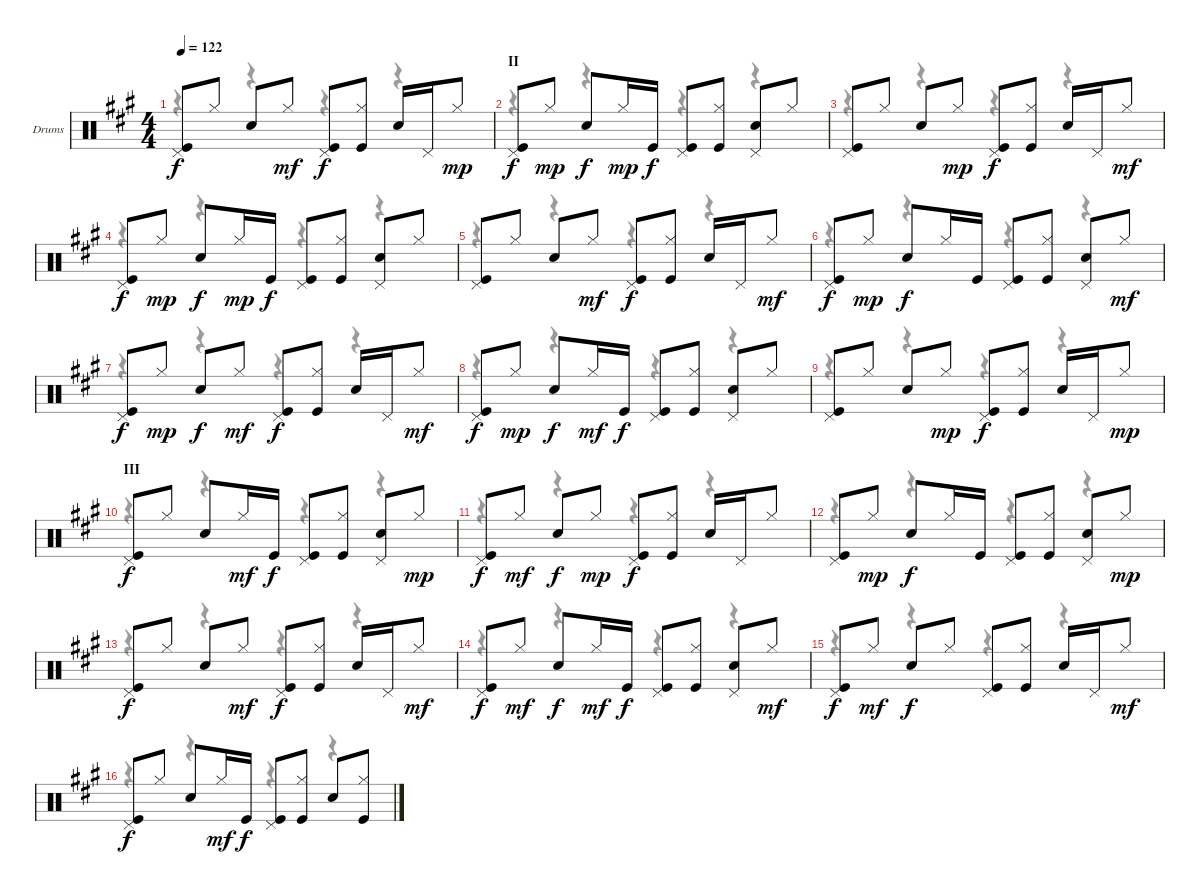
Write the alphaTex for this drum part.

\bracketExtendMode groupsimilarinstruments
\firstSystemTrackNameOrientation horizontal
\otherSystemsTrackNameOrientation horizontal
\track ("Chris Layton - Drums" "Drums") {instrument percussion}
\staff {score}
\articulation defaults
\voice
\ts (4 4)
\tempo 122
\clef neutral
\ks a
("Kick (hit)" "Pedal Hi-Hat (hit)").8{dy f} "Hi-Hat (closed)".8 "Snare (hit) 2".8 "Hi-Hat (closed)".8{dy mf} ("Kick (hit)" "Pedal Hi-Hat (hit)").8{dy f} ("Kick (hit)" "Hi-Hat (closed)").8 "Snare (hit) 2".16 "Pedal Hi-Hat (hit)".16 "Hi-Hat (closed)".8{dy mp} |
\section ("" "II")
("Kick (hit)" "Pedal Hi-Hat (hit)").8{dy f} "Hi-Hat (closed)".8{dy mp} "Snare (hit) 2".8{dy f} "Hi-Hat (closed)".16{dy mp} "Kick (hit)".16{dy f} ("Kick (hit)" "Pedal Hi-Hat (hit)").8 ("Kick (hit)" "Hi-Hat (closed)").8 ("Snare (hit) 2" "Pedal Hi-Hat (hit)").8 "Hi-Hat (closed)".8 |
("Kick (hit)" "Pedal Hi-Hat (hit)").8 "Hi-Hat (closed)".8 "Snare (hit) 2".8 "Hi-Hat (closed)".8{dy mp} ("Kick (hit)" "Pedal Hi-Hat (hit)").8{dy f} ("Kick (hit)" "Hi-Hat (closed)").8 "Snare (hit) 2".16 "Pedal Hi-Hat (hit)".16 "Hi-Hat (closed)".8{dy mf} |
("Kick (hit)" "Pedal Hi-Hat (hit)").8{dy f} "Hi-Hat (closed)".8{dy mp} "Snare (hit) 2".8{dy f} "Hi-Hat (closed)".16{dy mp} "Kick (hit)".16{dy f} ("Kick (hit)" "Pedal Hi-Hat (hit)").8 ("Kick (hit)" "Hi-Hat (closed)").8 ("Snare (hit) 2" "Pedal Hi-Hat (hit)").8 "Hi-Hat (closed)".8 |
("Kick (hit)" "Pedal Hi-Hat (hit)").8 "Hi-Hat (closed)".8 "Snare (hit) 2".8 "Hi-Hat (closed)".8{dy mf} ("Kick (hit)" "Pedal Hi-Hat (hit)").8{dy f} ("Kick (hit)" "Hi-Hat (closed)").8 "Snare (hit) 2".16 "Pedal Hi-Hat (hit)".16 "Hi-Hat (closed)".8{dy mf} |
("Kick (hit)" "Pedal Hi-Hat (hit)").8{dy f} "Hi-Hat (closed)".8{dy mp} "Snare (hit) 2".8{dy f} "Hi-Hat (closed)".16 "Kick (hit)".16 ("Kick (hit)" "Pedal Hi-Hat (hit)").8 ("Kick (hit)" "Hi-Hat (closed)").8 ("Snare (hit) 2" "Pedal Hi-Hat (hit)").8 "Hi-Hat (closed)".8{dy mf} |
("Kick (hit)" "Pedal Hi-Hat (hit)").8{dy f} "Hi-Hat (closed)".8{dy mp} "Snare (hit) 2".8{dy f} "Hi-Hat (closed)".8{dy mf} ("Kick (hit)" "Pedal Hi-Hat (hit)").8{dy f} ("Kick (hit)" "Hi-Hat (closed)").8 "Snare (hit) 2".16 "Pedal Hi-Hat (hit)".16 "Hi-Hat (closed)".8{dy mf} |
("Kick (hit)" "Pedal Hi-Hat (hit)").8{dy f} "Hi-Hat (closed)".8{dy mp} "Snare (hit) 2".8{dy f} "Hi-Hat (closed)".16{dy mf} "Kick (hit)".16{dy f} ("Kick (hit)" "Pedal Hi-Hat (hit)").8 ("Kick (hit)" "Hi-Hat (closed)").8 ("Snare (hit) 2" "Pedal Hi-Hat (hit)").8 "Hi-Hat (closed)".8 |
("Kick (hit)" "Pedal Hi-Hat (hit)").8 "Hi-Hat (closed)".8 "Snare (hit) 2".8 "Hi-Hat (closed)".8{dy mp} ("Kick (hit)" "Pedal Hi-Hat (hit)").8{dy f} ("Kick (hit)" "Hi-Hat (closed)").8 "Snare (hit) 2".16 "Pedal Hi-Hat (hit)".16 "Hi-Hat (closed)".8{dy mp} |
\section ("" "III")
("Kick (hit)" "Pedal Hi-Hat (hit)").8{dy f} "Hi-Hat (closed)".8 "Snare (hit) 2".8 "Hi-Hat (closed)".16{dy mf} "Kick (hit)".16{dy f} ("Kick (hit)" "Pedal Hi-Hat (hit)").8 ("Kick (hit)" "Hi-Hat (closed)").8 ("Snare (hit) 2" "Pedal Hi-Hat (hit)").8 "Hi-Hat (closed)".8{dy mp} |
("Kick (hit)" "Pedal Hi-Hat (hit)").8{dy f} "Hi-Hat (closed)".8{dy mf} "Snare (hit) 2".8{dy f} "Hi-Hat (closed)".8{dy mp} ("Kick (hit)" "Pedal Hi-Hat (hit)").8{dy f} ("Kick (hit)" "Hi-Hat (closed)").8 "Snare (hit) 2".16 "Pedal Hi-Hat (hit)".16 "Hi-Hat (closed)".8 |
("Kick (hit)" "Pedal Hi-Hat (hit)").8 "Hi-Hat (closed)".8{dy mp} "Snare (hit) 2".8{dy f} "Hi-Hat (closed)".16 "Kick (hit)".16 ("Kick (hit)" "Pedal Hi-Hat (hit)").8 ("Kick (hit)" "Hi-Hat (closed)").8 ("Snare (hit) 2" "Pedal Hi-Hat (hit)").8 "Hi-Hat (closed)".8{dy mp} |
("Kick (hit)" "Pedal Hi-Hat (hit)").8{dy f} "Hi-Hat (closed)".8 "Snare (hit) 2".8 "Hi-Hat (closed)".8{dy mf} ("Kick (hit)" "Pedal Hi-Hat (hit)").8{dy f} ("Kick (hit)" "Hi-Hat (closed)").8 "Snare (hit) 2".16 "Pedal Hi-Hat (hit)".16 "Hi-Hat (closed)".8{dy mf} |
("Kick (hit)" "Pedal Hi-Hat (hit)").8{dy f} "Hi-Hat (closed)".8{dy mf} "Snare (hit) 2".8{dy f} "Hi-Hat (closed)".16{dy mf} "Kick (hit)".16{dy f} ("Kick (hit)" "Pedal Hi-Hat (hit)").8 ("Kick (hit)" "Hi-Hat (closed)").8 ("Snare (hit) 2" "Pedal Hi-Hat (hit)").8 "Hi-Hat (closed)".8{dy mf} |
("Kick (hit)" "Pedal Hi-Hat (hit)").8{dy f} "Hi-Hat (closed)".8{dy mf} "Snare (hit) 2".8{dy f} "Hi-Hat (closed)".8 ("Kick (hit)" "Pedal Hi-Hat (hit)").8 ("Kick (hit)" "Hi-Hat (closed)").8 "Snare (hit) 2".16 "Pedal Hi-Hat (hit)".16 "Hi-Hat (closed)".8{dy mf} |
("Kick (hit)" "Pedal Hi-Hat (hit)").8{dy f} "Hi-Hat (closed)".8 "Snare (hit) 2".8 "Hi-Hat (closed)".16{dy mf} "Kick (hit)".16{dy f} ("Kick (hit)" "Pedal Hi-Hat (hit)").8 ("Kick (hit)" "Hi-Hat (closed)").8 "Snare (hit) 2".8 ("Kick (hit)" "Hi-Hat (closed)").8
\voice
\clef neutral
\ottava regular
\simile none
\ks a
r.4{dy mf} r.4 r.4 r.4 |
r.4 r.4 r.4 r.4 |
r.4 r.4 r.4 r.4 |
r.4 r.4 r.4 r.4 |
r.4 r.4 r.4 r.4 |
r.4 r.4 r.4 r.4 |
r.4 r.4 r.4 r.4 |
r.4 r.4 r.4 r.4 |
r.4 r.4 r.4 r.4 |
r.4 r.4 r.4 r.4 |
r.4 r.4 r.4 r.4 |
r.4 r.4 r.4 r.4 |
r.4 r.4 r.4 r.4 |
r.4 r.4 r.4 r.4 |
r.4 r.4 r.4 r.4 |
r.4 r.4 r.4 r.4
